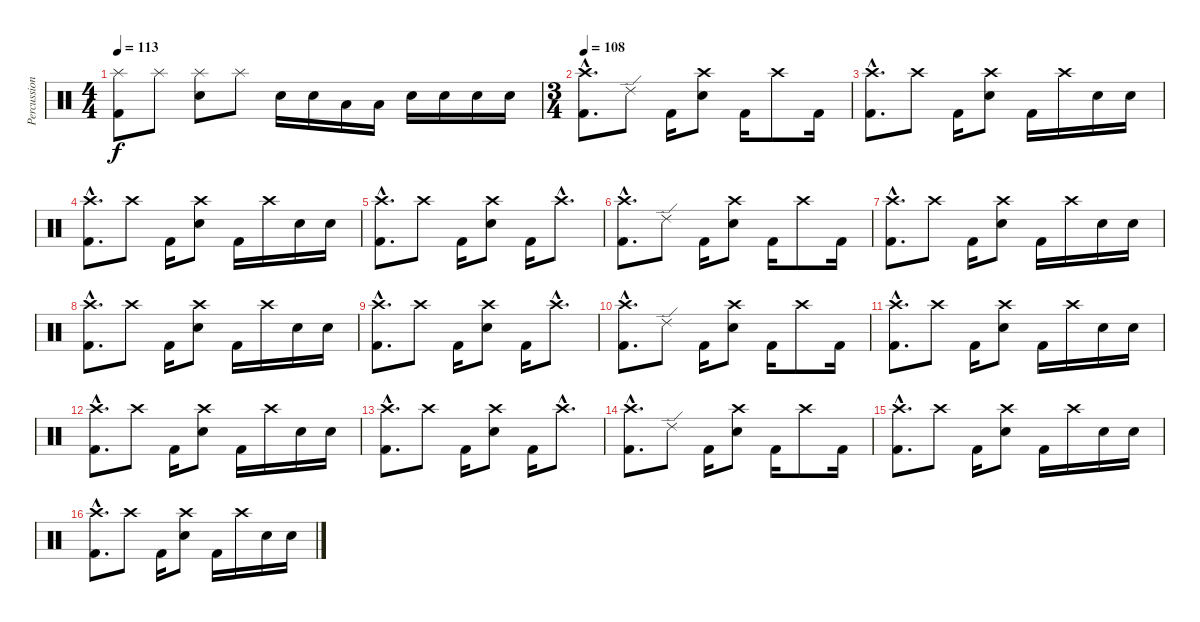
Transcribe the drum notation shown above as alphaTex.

\track ("Percussion" "Percussion") {instrument percussion}
\staff {score}
\articulation defaults
\ts (4 4)
\tempo 113
\clef neutral
\ks c
("Splash (hit)" "Kick (hit) 2").8{dy f} "Splash (hit)".8 ("Splash (hit)" "Electric Snare (hit)").8 "Splash (hit)".8 "Electric Snare (hit)".16 "Electric Snare (hit)".16 "Low Floor Tom (hit)".16 "Low Floor Tom (hit)".16 "Electric Snare (hit)".16 "Electric Snare (hit)".16 "Electric Snare (hit)".16 "Electric Snare (hit)".16 |
\ts (3 4)
\tempo 108
("Crash high (hit)"{hac} "Kick (hit) 2"{hac}).8{d} "Ride (edge) 2".8 "Kick (hit) 2".16 ("Crash high (hit)" "Electric Snare (hit)").8 "Kick (hit) 2".16 "Crash high (hit)".8 "Kick (hit) 2".16 |
("Crash high (hit)"{hac} "Kick (hit) 2"{hac}).8{d} "Crash high (hit)".8 "Kick (hit) 2".16 ("Crash high (hit)" "Electric Snare (hit)").8 "Kick (hit) 2".16 "Crash high (hit)".16 "Electric Snare (hit)".16 "Electric Snare (hit)".16 |
("Crash high (hit)"{hac} "Kick (hit) 2"{hac}).8{d} "Crash high (hit)".8 "Kick (hit) 2".16 ("Crash high (hit)" "Electric Snare (hit)").8 "Kick (hit) 2".16 "Crash high (hit)".16 "Electric Snare (hit)".16 "Electric Snare (hit)".16 |
("Crash high (hit)"{hac} "Kick (hit) 2"{hac}).8{d} "Crash high (hit)".8 "Kick (hit) 2".16 ("Crash high (hit)" "Electric Snare (hit)").8 "Kick (hit) 2".16 "Crash high (hit)"{hac}.8{d} |
("Crash high (hit)"{hac} "Kick (hit) 2"{hac}).8{d} "Ride (edge) 2".8 "Kick (hit) 2".16 ("Crash high (hit)" "Electric Snare (hit)").8 "Kick (hit) 2".16 "Crash high (hit)".8 "Kick (hit) 2".16 |
("Crash high (hit)"{hac} "Kick (hit) 2"{hac}).8{d} "Crash high (hit)".8 "Kick (hit) 2".16 ("Crash high (hit)" "Electric Snare (hit)").8 "Kick (hit) 2".16 "Crash high (hit)".16 "Electric Snare (hit)".16 "Electric Snare (hit)".16 |
("Crash high (hit)"{hac} "Kick (hit) 2"{hac}).8{d} "Crash high (hit)".8 "Kick (hit) 2".16 ("Crash high (hit)" "Electric Snare (hit)").8 "Kick (hit) 2".16 "Crash high (hit)".16 "Electric Snare (hit)".16 "Electric Snare (hit)".16 |
("Crash high (hit)"{hac} "Kick (hit) 2"{hac}).8{d} "Crash high (hit)".8 "Kick (hit) 2".16 ("Crash high (hit)" "Electric Snare (hit)").8 "Kick (hit) 2".16 "Crash high (hit)"{hac}.8{d} |
("Crash high (hit)"{hac} "Kick (hit) 2"{hac}).8{d} "Ride (edge) 2".8 "Kick (hit) 2".16 ("Crash high (hit)" "Electric Snare (hit)").8 "Kick (hit) 2".16 "Crash high (hit)".8 "Kick (hit) 2".16 |
("Crash high (hit)"{hac} "Kick (hit) 2"{hac}).8{d} "Crash high (hit)".8 "Kick (hit) 2".16 ("Crash high (hit)" "Electric Snare (hit)").8 "Kick (hit) 2".16 "Crash high (hit)".16 "Electric Snare (hit)".16 "Electric Snare (hit)".16 |
("Crash high (hit)"{hac} "Kick (hit) 2"{hac}).8{d} "Crash high (hit)".8 "Kick (hit) 2".16 ("Crash high (hit)" "Electric Snare (hit)").8 "Kick (hit) 2".16 "Crash high (hit)".16 "Electric Snare (hit)".16 "Electric Snare (hit)".16 |
("Crash high (hit)"{hac} "Kick (hit) 2"{hac}).8{d} "Crash high (hit)".8 "Kick (hit) 2".16 ("Crash high (hit)" "Electric Snare (hit)").8 "Kick (hit) 2".16 "Crash high (hit)"{hac}.8{d} |
("Crash high (hit)"{hac} "Kick (hit) 2"{hac}).8{d} "Ride (edge) 2".8 "Kick (hit) 2".16 ("Crash high (hit)" "Electric Snare (hit)").8 "Kick (hit) 2".16 "Crash high (hit)".8 "Kick (hit) 2".16 |
("Crash high (hit)"{hac} "Kick (hit) 2"{hac}).8{d} "Crash high (hit)".8 "Kick (hit) 2".16 ("Crash high (hit)" "Electric Snare (hit)").8 "Kick (hit) 2".16 "Crash high (hit)".16 "Electric Snare (hit)".16 "Electric Snare (hit)".16 |
("Crash high (hit)"{hac} "Kick (hit) 2"{hac}).8{d} "Crash high (hit)".8 "Kick (hit) 2".16 ("Crash high (hit)" "Electric Snare (hit)").8 "Kick (hit) 2".16 "Crash high (hit)".16 "Electric Snare (hit)".16 "Electric Snare (hit)".16
